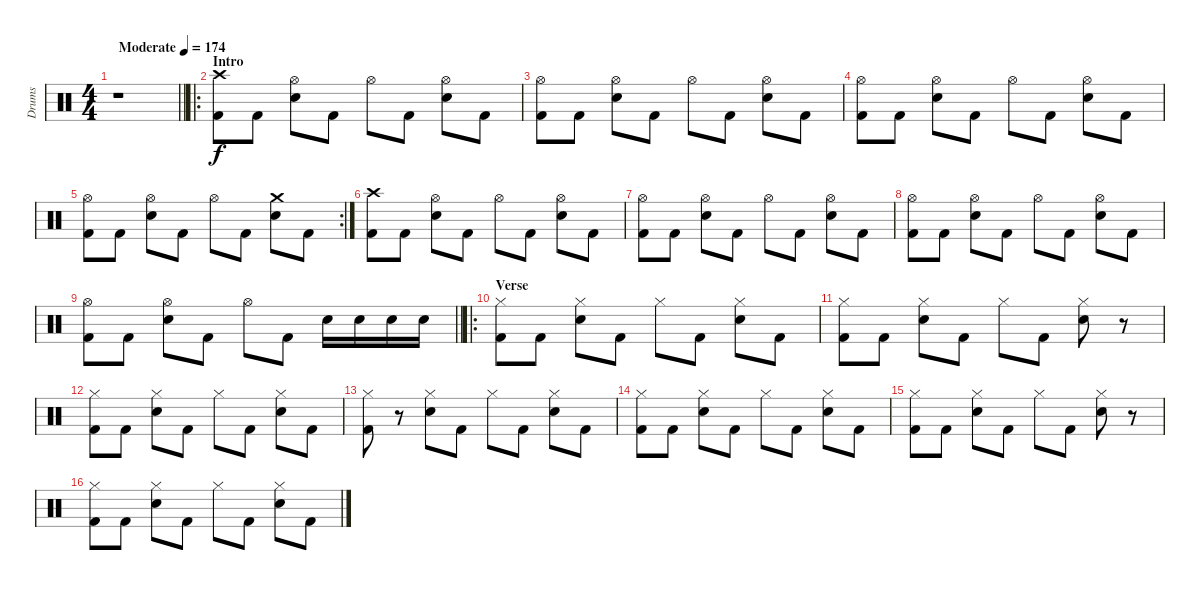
\track ("Drums" "Drums") {instrument percussion}
\staff {score}
\articulation defaults
\ts (4 4)
\tempo (174 "Moderate")
\clef neutral
\barLineRight lightlight
\ks c
r.1{dy f} |
\ro
\section ("" "Intro")
("Crash high (hit)" "Kick (hit) 2").8 "Kick (hit) 2".8 ("Hi-Hat (open)" "Electric Snare (hit)").8 "Kick (hit) 2".8 "Hi-Hat (open)".8 "Kick (hit) 2".8 ("Hi-Hat (open)" "Electric Snare (hit)").8 "Kick (hit) 2".8 |
("Hi-Hat (open)" "Kick (hit) 2").8 "Kick (hit) 2".8 ("Hi-Hat (open)" "Electric Snare (hit)").8 "Kick (hit) 2".8 "Hi-Hat (open)".8 "Kick (hit) 2".8 ("Hi-Hat (open)" "Electric Snare (hit)").8 "Kick (hit) 2".8 |
("Hi-Hat (open)" "Kick (hit) 2").8 "Kick (hit) 2".8 ("Hi-Hat (open)" "Electric Snare (hit)").8 "Kick (hit) 2".8 "Hi-Hat (open)".8 "Kick (hit) 2".8 ("Hi-Hat (open)" "Electric Snare (hit)").8 "Kick (hit) 2".8 |
\rc 2
("Hi-Hat (open)" "Kick (hit) 2").8 "Kick (hit) 2".8 ("Hi-Hat (open)" "Electric Snare (hit)").8 "Kick (hit) 2".8 "Hi-Hat (open)".8 "Kick (hit) 2".8 ("Crash medium (hit)" "Electric Snare (hit)").8 "Kick (hit) 2".8 |
("Crash high (hit)" "Kick (hit) 2").8 "Kick (hit) 2".8 ("Hi-Hat (open)" "Electric Snare (hit)").8 "Kick (hit) 2".8 "Hi-Hat (open)".8 "Kick (hit) 2".8 ("Hi-Hat (open)" "Electric Snare (hit)").8 "Kick (hit) 2".8 |
("Hi-Hat (open)" "Kick (hit) 2").8 "Kick (hit) 2".8 ("Hi-Hat (open)" "Electric Snare (hit)").8 "Kick (hit) 2".8 "Hi-Hat (open)".8 "Kick (hit) 2".8 ("Hi-Hat (open)" "Electric Snare (hit)").8 "Kick (hit) 2".8 |
("Hi-Hat (open)" "Kick (hit) 2").8 "Kick (hit) 2".8 ("Hi-Hat (open)" "Electric Snare (hit)").8 "Kick (hit) 2".8 "Hi-Hat (open)".8 "Kick (hit) 2".8 ("Hi-Hat (open)" "Electric Snare (hit)").8 "Kick (hit) 2".8 |
\barLineRight lightlight
("Hi-Hat (open)" "Kick (hit) 2").8 "Kick (hit) 2".8 ("Hi-Hat (open)" "Electric Snare (hit)").8 "Kick (hit) 2".8 "Hi-Hat (open)".8 "Kick (hit) 2".8 "Electric Snare (hit)".16 "Electric Snare (hit)".16 "Electric Snare (hit)".16 "Electric Snare (hit)".16 |
\ro
\section ("" "Verse")
("Hi-Hat (closed)" "Kick (hit) 2").8 "Kick (hit) 2".8 ("Hi-Hat (closed)" "Electric Snare (hit)").8 "Kick (hit) 2".8 "Hi-Hat (closed)".8 "Kick (hit) 2".8 ("Hi-Hat (closed)" "Electric Snare (hit)").8 "Kick (hit) 2".8 |
("Hi-Hat (closed)" "Kick (hit) 2").8 "Kick (hit) 2".8 ("Hi-Hat (closed)" "Electric Snare (hit)").8 "Kick (hit) 2".8 "Hi-Hat (closed)".8 "Kick (hit) 2".8 ("Hi-Hat (closed)" "Electric Snare (hit)").8 r.8 |
("Hi-Hat (closed)" "Kick (hit) 2").8 "Kick (hit) 2".8 ("Hi-Hat (closed)" "Electric Snare (hit)").8 "Kick (hit) 2".8 "Hi-Hat (closed)".8 "Kick (hit) 2".8 ("Hi-Hat (closed)" "Electric Snare (hit)").8 "Kick (hit) 2".8 |
("Hi-Hat (closed)" "Kick (hit) 2").8 r.8 ("Hi-Hat (closed)" "Electric Snare (hit)").8 "Kick (hit) 2".8 "Hi-Hat (closed)".8 "Kick (hit) 2".8 ("Hi-Hat (closed)" "Electric Snare (hit)").8 "Kick (hit) 2".8 |
("Hi-Hat (closed)" "Kick (hit) 2").8 "Kick (hit) 2".8 ("Hi-Hat (closed)" "Electric Snare (hit)").8 "Kick (hit) 2".8 "Hi-Hat (closed)".8 "Kick (hit) 2".8 ("Hi-Hat (closed)" "Electric Snare (hit)").8 "Kick (hit) 2".8 |
("Hi-Hat (closed)" "Kick (hit) 2").8 "Kick (hit) 2".8 ("Hi-Hat (closed)" "Electric Snare (hit)").8 "Kick (hit) 2".8 "Hi-Hat (closed)".8 "Kick (hit) 2".8 ("Hi-Hat (closed)" "Electric Snare (hit)").8 r.8 |
("Hi-Hat (closed)" "Kick (hit) 2").8 "Kick (hit) 2".8 ("Hi-Hat (closed)" "Electric Snare (hit)").8 "Kick (hit) 2".8 "Hi-Hat (closed)".8 "Kick (hit) 2".8 ("Hi-Hat (closed)" "Electric Snare (hit)").8 "Kick (hit) 2".8
